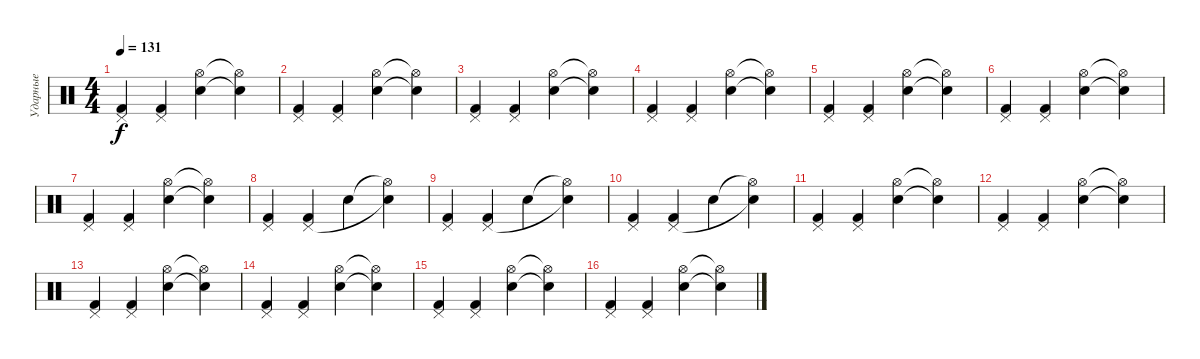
\track ("Ударные" "Ударные") {instrument percussion}
\staff {score}
\articulation defaults
\ts (4 4)
\tempo 131
\clef neutral
\ks c
("Kick (hit) 2" "Pedal Hi-Hat (hit)").4{dy f} ("Kick (hit) 2" "Pedal Hi-Hat (hit)").4 ("Hi-Hat (open)" "Snare (hit) 2").4 ("Hi-Hat (open)"{t} "Snare (hit) 2"{t}).4 |
("Kick (hit) 2" "Pedal Hi-Hat (hit)").4 ("Kick (hit) 2" "Pedal Hi-Hat (hit)").4 ("Hi-Hat (open)" "Snare (hit) 2").4 ("Hi-Hat (open)"{t} "Snare (hit) 2"{t}).4 |
("Kick (hit) 2" "Pedal Hi-Hat (hit)").4 ("Kick (hit) 2" "Pedal Hi-Hat (hit)").4 ("Hi-Hat (open)" "Snare (hit) 2").4 ("Hi-Hat (open)"{t} "Snare (hit) 2"{t}).4 |
("Kick (hit) 2" "Pedal Hi-Hat (hit)").4 ("Kick (hit) 2" "Pedal Hi-Hat (hit)").4 ("Hi-Hat (open)" "Snare (hit) 2").4 ("Hi-Hat (open)"{t} "Snare (hit) 2"{t}).4 |
("Kick (hit) 2" "Pedal Hi-Hat (hit)").4 ("Kick (hit) 2" "Pedal Hi-Hat (hit)").4 ("Hi-Hat (open)" "Snare (hit) 2").4 ("Hi-Hat (open)"{t} "Snare (hit) 2"{t}).4 |
("Kick (hit) 2" "Pedal Hi-Hat (hit)").4 ("Kick (hit) 2" "Pedal Hi-Hat (hit)").4 ("Hi-Hat (open)" "Snare (hit) 2").4 ("Hi-Hat (open)"{t} "Snare (hit) 2"{t}).4 |
("Kick (hit) 2" "Pedal Hi-Hat (hit)").4 ("Kick (hit) 2" "Pedal Hi-Hat (hit)").4 ("Hi-Hat (open)" "Snare (hit) 2").4 ("Hi-Hat (open)"{t} "Snare (hit) 2"{t}).4 |
("Kick (hit) 2" "Pedal Hi-Hat (hit)").4 ("Kick (hit) 2" "Pedal Hi-Hat (hit)").4 "Snare (hit) 2".4 ("Hi-Hat (open)"{t} "Snare (hit) 2"{t}).4 |
("Kick (hit) 2" "Pedal Hi-Hat (hit)").4 ("Kick (hit) 2" "Pedal Hi-Hat (hit)").4 "Snare (hit) 2".4 ("Hi-Hat (open)"{t} "Snare (hit) 2"{t}).4 |
("Kick (hit) 2" "Pedal Hi-Hat (hit)").4 ("Kick (hit) 2" "Pedal Hi-Hat (hit)").4 "Snare (hit) 2".4 ("Hi-Hat (open)"{t} "Snare (hit) 2"{t}).4 |
("Kick (hit) 2" "Pedal Hi-Hat (hit)").4 ("Kick (hit) 2" "Pedal Hi-Hat (hit)").4 ("Hi-Hat (open)" "Snare (hit) 2").4 ("Hi-Hat (open)"{t} "Snare (hit) 2"{t}).4 |
("Kick (hit) 2" "Pedal Hi-Hat (hit)").4 ("Kick (hit) 2" "Pedal Hi-Hat (hit)").4 ("Hi-Hat (open)" "Snare (hit) 2").4 ("Hi-Hat (open)"{t} "Snare (hit) 2"{t}).4 |
("Kick (hit) 2" "Pedal Hi-Hat (hit)").4 ("Kick (hit) 2" "Pedal Hi-Hat (hit)").4 ("Hi-Hat (open)" "Snare (hit) 2").4 ("Hi-Hat (open)"{t} "Snare (hit) 2"{t}).4 |
("Kick (hit) 2" "Pedal Hi-Hat (hit)").4 ("Kick (hit) 2" "Pedal Hi-Hat (hit)").4 ("Hi-Hat (open)" "Snare (hit) 2").4 ("Hi-Hat (open)"{t} "Snare (hit) 2"{t}).4 |
("Kick (hit) 2" "Pedal Hi-Hat (hit)").4 ("Kick (hit) 2" "Pedal Hi-Hat (hit)").4 ("Hi-Hat (open)" "Snare (hit) 2").4 ("Hi-Hat (open)"{t} "Snare (hit) 2"{t}).4 |
("Kick (hit) 2" "Pedal Hi-Hat (hit)").4 ("Kick (hit) 2" "Pedal Hi-Hat (hit)").4 ("Hi-Hat (open)" "Snare (hit) 2").4 ("Hi-Hat (open)"{t} "Snare (hit) 2"{t}).4
